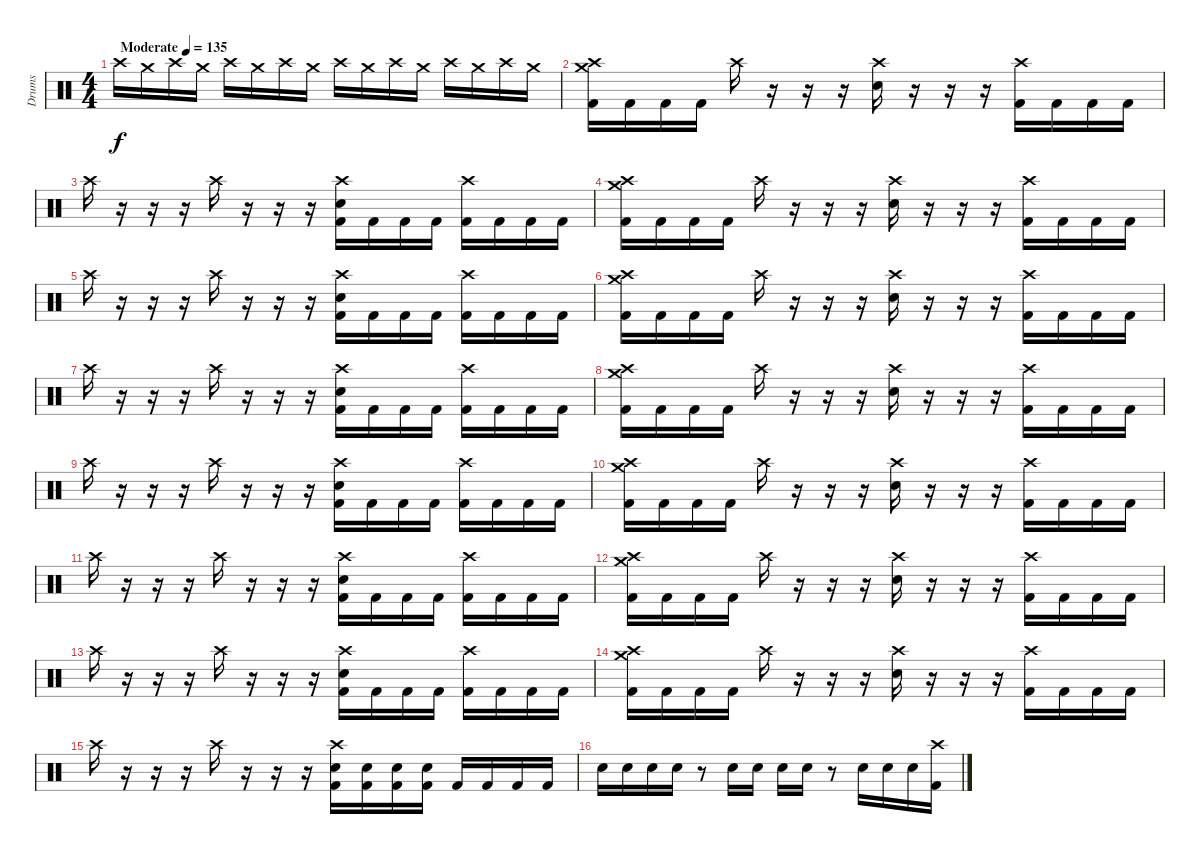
\track ("Drums" "Drums") {instrument percussion}
\staff {score}
\articulation defaults
\ts (4 4)
\tempo (135 "Moderate")
\clef neutral
\ks c "Crash high (hit)".16{dy f volume 0} "Crash medium (hit)".16{volume 16} "Crash high (hit)".16 "Crash medium (hit)".16 "Crash high (hit)".16 "Crash medium (hit)".16 "Crash high (hit)".16 "Crash medium (hit)".16 "Crash high (hit)".16 "Crash medium (hit)".16 "Crash high (hit)".16 "Crash medium (hit)".16 "Crash high (hit)".16 "Crash medium (hit)".16 "Crash high (hit)".16 "Crash medium (hit)".16
|
("Crash high (hit)" "Crash medium (hit)" "Kick (hit) 2").16 "Kick (hit) 2".16 "Kick (hit) 2".16 "Kick (hit) 2".16 "Crash high (hit)".16 r.16 r.16 r.16 ("Crash high (hit)" "Snare (hit) 2").16 r.16 r.16 r.16 ("Crash high (hit)" "Kick (hit) 2").16 "Kick (hit) 2".16 "Kick (hit) 2".16 "Kick (hit) 2".16 |
"Crash high (hit)".16 r.16 r.16 r.16 "Crash high (hit)".16 r.16 r.16 r.16 ("Crash high (hit)" "Snare (hit) 2" "Kick (hit) 2").16 "Kick (hit) 2".16 "Kick (hit) 2".16 "Kick (hit) 2".16 ("Crash high (hit)" "Kick (hit) 2").16 "Kick (hit) 2".16 "Kick (hit) 2".16 "Kick (hit) 2".16 |
("Crash high (hit)" "Crash medium (hit)" "Kick (hit) 2").16 "Kick (hit) 2".16 "Kick (hit) 2".16 "Kick (hit) 2".16 "Crash high (hit)".16 r.16 r.16 r.16 ("Crash high (hit)" "Snare (hit) 2").16 r.16 r.16 r.16 ("Crash high (hit)" "Kick (hit) 2").16 "Kick (hit) 2".16 "Kick (hit) 2".16 "Kick (hit) 2".16 |
"Crash high (hit)".16 r.16 r.16 r.16 "Crash high (hit)".16 r.16 r.16 r.16 ("Crash high (hit)" "Snare (hit) 2" "Kick (hit) 2").16 "Kick (hit) 2".16 "Kick (hit) 2".16 "Kick (hit) 2".16 ("Crash high (hit)" "Kick (hit) 2").16 "Kick (hit) 2".16 "Kick (hit) 2".16 "Kick (hit) 2".16 |
("Crash high (hit)" "Crash medium (hit)" "Kick (hit) 2").16 "Kick (hit) 2".16 "Kick (hit) 2".16 "Kick (hit) 2".16 "Crash high (hit)".16 r.16 r.16 r.16 ("Crash high (hit)" "Snare (hit) 2").16 r.16 r.16 r.16 ("Crash high (hit)" "Kick (hit) 2").16 "Kick (hit) 2".16 "Kick (hit) 2".16 "Kick (hit) 2".16 |
"Crash high (hit)".16 r.16 r.16 r.16 "Crash high (hit)".16 r.16 r.16 r.16 ("Crash high (hit)" "Snare (hit) 2" "Kick (hit) 2").16 "Kick (hit) 2".16 "Kick (hit) 2".16 "Kick (hit) 2".16 ("Crash high (hit)" "Kick (hit) 2").16 "Kick (hit) 2".16 "Kick (hit) 2".16 "Kick (hit) 2".16 |
("Crash high (hit)" "Crash medium (hit)" "Kick (hit) 2").16 "Kick (hit) 2".16 "Kick (hit) 2".16 "Kick (hit) 2".16 "Crash high (hit)".16 r.16 r.16 r.16 ("Crash high (hit)" "Snare (hit) 2").16 r.16 r.16 r.16 ("Crash high (hit)" "Kick (hit) 2").16 "Kick (hit) 2".16 "Kick (hit) 2".16 "Kick (hit) 2".16 |
"Crash high (hit)".16 r.16 r.16 r.16 "Crash high (hit)".16 r.16 r.16 r.16 ("Crash high (hit)" "Snare (hit) 2" "Kick (hit) 2").16 "Kick (hit) 2".16 "Kick (hit) 2".16 "Kick (hit) 2".16 ("Crash high (hit)" "Kick (hit) 2").16 "Kick (hit) 2".16 "Kick (hit) 2".16 "Kick (hit) 2".16 |
("Crash high (hit)" "Crash medium (hit)" "Kick (hit) 2").16 "Kick (hit) 2".16 "Kick (hit) 2".16 "Kick (hit) 2".16 "Crash high (hit)".16 r.16 r.16 r.16 ("Crash high (hit)" "Snare (hit) 2").16 r.16 r.16 r.16 ("Crash high (hit)" "Kick (hit) 2").16 "Kick (hit) 2".16 "Kick (hit) 2".16 "Kick (hit) 2".16 |
"Crash high (hit)".16 r.16 r.16 r.16 "Crash high (hit)".16 r.16 r.16 r.16 ("Crash high (hit)" "Snare (hit) 2" "Kick (hit) 2").16 "Kick (hit) 2".16 "Kick (hit) 2".16 "Kick (hit) 2".16 ("Crash high (hit)" "Kick (hit) 2").16 "Kick (hit) 2".16 "Kick (hit) 2".16 "Kick (hit) 2".16 |
("Crash high (hit)" "Crash medium (hit)" "Kick (hit) 2").16 "Kick (hit) 2".16 "Kick (hit) 2".16 "Kick (hit) 2".16 "Crash high (hit)".16 r.16 r.16 r.16 ("Crash high (hit)" "Snare (hit) 2").16 r.16 r.16 r.16 ("Crash high (hit)" "Kick (hit) 2").16 "Kick (hit) 2".16 "Kick (hit) 2".16 "Kick (hit) 2".16 |
"Crash high (hit)".16 r.16 r.16 r.16 "Crash high (hit)".16 r.16 r.16 r.16 ("Crash high (hit)" "Snare (hit) 2" "Kick (hit) 2").16 "Kick (hit) 2".16 "Kick (hit) 2".16 "Kick (hit) 2".16 ("Crash high (hit)" "Kick (hit) 2").16 "Kick (hit) 2".16 "Kick (hit) 2".16 "Kick (hit) 2".16 |
("Crash high (hit)" "Crash medium (hit)" "Kick (hit) 2").16 "Kick (hit) 2".16 "Kick (hit) 2".16 "Kick (hit) 2".16 "Crash high (hit)".16 r.16 r.16 r.16 ("Crash high (hit)" "Snare (hit) 2").16 r.16 r.16 r.16 ("Crash high (hit)" "Kick (hit) 2").16 "Kick (hit) 2".16 "Kick (hit) 2".16 "Kick (hit) 2".16 |
"Crash high (hit)".16 r.16 r.16 r.16 "Crash high (hit)".16 r.16 r.16 r.16 ("Crash high (hit)" "Snare (hit) 2" "Kick (hit) 2").16 ("Snare (hit) 2" "Kick (hit) 2").16 ("Snare (hit) 2" "Kick (hit) 2").16 ("Snare (hit) 2" "Kick (hit) 2").16 "Kick (hit) 2".16 "Kick (hit) 2".16 "Kick (hit) 2".16 "Kick (hit) 2".16 |
"Snare (hit) 2".16 "Snare (hit) 2".16 "Snare (hit) 2".16 "Snare (hit) 2".16 r.8 "Snare (hit) 2".16 "Snare (hit) 2".16 "Snare (hit) 2".16 "Snare (hit) 2".16 r.8 "Snare (hit) 2".16 "Snare (hit) 2".16 "Snare (hit) 2".16 ("Crash high (hit)" "Kick (hit) 2").16
